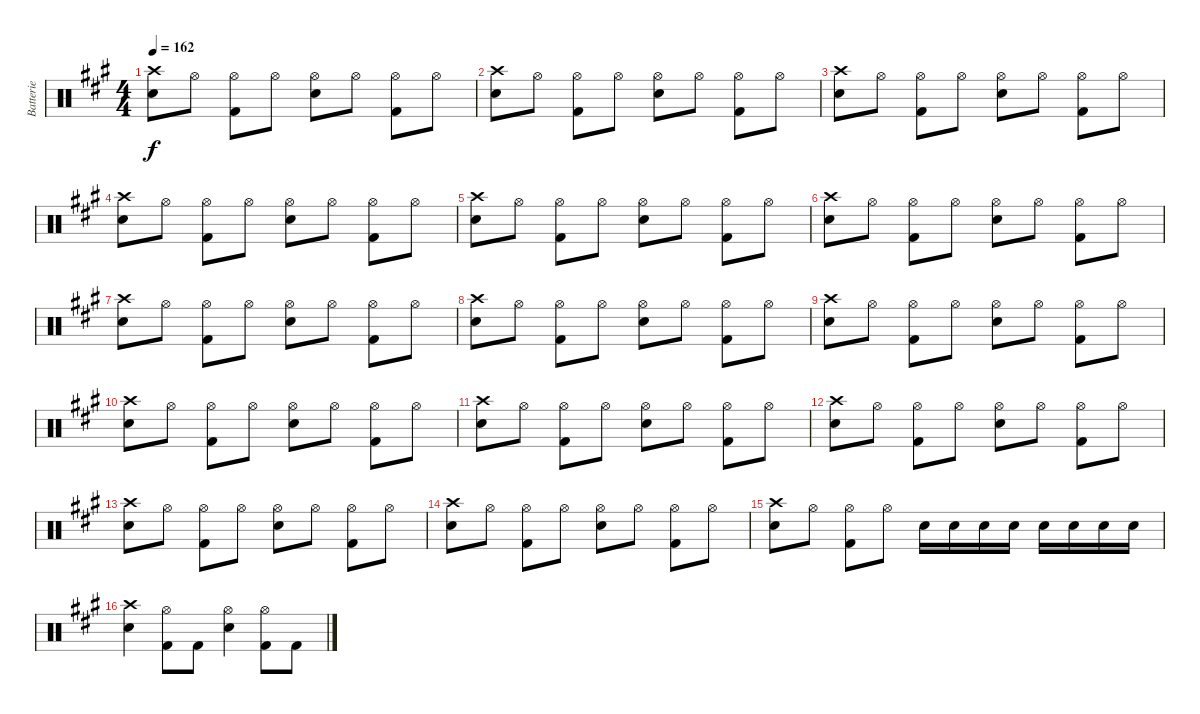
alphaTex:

\track ("Batterie" "Batterie") {instrument percussion}
\staff {score}
\articulation defaults
\ts (4 4)
\tempo 162
\clef neutral
\ks a
("Crash high (hit)" "Snare (hit) 2").8{dy f} "Hi-Hat (open)".8 ("Hi-Hat (open)" "Kick (hit) 2").8 "Hi-Hat (open)".8 ("Hi-Hat (open)" "Snare (hit) 2").8 "Hi-Hat (open)".8 ("Hi-Hat (open)" "Kick (hit) 2").8 "Hi-Hat (open)".8 |
("Crash high (hit)" "Snare (hit) 2").8 "Hi-Hat (open)".8 ("Hi-Hat (open)" "Kick (hit) 2").8 "Hi-Hat (open)".8 ("Hi-Hat (open)" "Snare (hit) 2").8 "Hi-Hat (open)".8 ("Hi-Hat (open)" "Kick (hit) 2").8 "Hi-Hat (open)".8 |
("Crash high (hit)" "Snare (hit) 2").8 "Hi-Hat (open)".8 ("Hi-Hat (open)" "Kick (hit) 2").8 "Hi-Hat (open)".8 ("Hi-Hat (open)" "Snare (hit) 2").8 "Hi-Hat (open)".8 ("Hi-Hat (open)" "Kick (hit) 2").8 "Hi-Hat (open)".8 |
("Crash high (hit)" "Snare (hit) 2").8 "Hi-Hat (open)".8 ("Hi-Hat (open)" "Kick (hit) 2").8 "Hi-Hat (open)".8 ("Hi-Hat (open)" "Snare (hit) 2").8 "Hi-Hat (open)".8 ("Hi-Hat (open)" "Kick (hit) 2").8 "Hi-Hat (open)".8 |
("Crash high (hit)" "Snare (hit) 2").8 "Hi-Hat (open)".8 ("Hi-Hat (open)" "Kick (hit) 2").8 "Hi-Hat (open)".8 ("Hi-Hat (open)" "Snare (hit) 2").8 "Hi-Hat (open)".8 ("Hi-Hat (open)" "Kick (hit) 2").8 "Hi-Hat (open)".8 |
("Crash high (hit)" "Snare (hit) 2").8 "Hi-Hat (open)".8 ("Hi-Hat (open)" "Kick (hit) 2").8 "Hi-Hat (open)".8 ("Hi-Hat (open)" "Snare (hit) 2").8 "Hi-Hat (open)".8 ("Hi-Hat (open)" "Kick (hit) 2").8 "Hi-Hat (open)".8 |
("Crash high (hit)" "Snare (hit) 2").8 "Hi-Hat (open)".8 ("Hi-Hat (open)" "Kick (hit) 2").8 "Hi-Hat (open)".8 ("Hi-Hat (open)" "Snare (hit) 2").8 "Hi-Hat (open)".8 ("Hi-Hat (open)" "Kick (hit) 2").8 "Hi-Hat (open)".8 |
("Crash high (hit)" "Snare (hit) 2").8 "Hi-Hat (open)".8 ("Hi-Hat (open)" "Kick (hit) 2").8 "Hi-Hat (open)".8 ("Hi-Hat (open)" "Snare (hit) 2").8 "Hi-Hat (open)".8 ("Hi-Hat (open)" "Kick (hit) 2").8 "Hi-Hat (open)".8 |
("Crash high (hit)" "Snare (hit) 2").8 "Hi-Hat (open)".8 ("Hi-Hat (open)" "Kick (hit) 2").8 "Hi-Hat (open)".8 ("Hi-Hat (open)" "Snare (hit) 2").8 "Hi-Hat (open)".8 ("Hi-Hat (open)" "Kick (hit) 2").8 "Hi-Hat (open)".8 |
("Crash high (hit)" "Snare (hit) 2").8 "Hi-Hat (open)".8 ("Hi-Hat (open)" "Kick (hit) 2").8 "Hi-Hat (open)".8 ("Hi-Hat (open)" "Snare (hit) 2").8 "Hi-Hat (open)".8 ("Hi-Hat (open)" "Kick (hit) 2").8 "Hi-Hat (open)".8 |
("Crash high (hit)" "Snare (hit) 2").8 "Hi-Hat (open)".8 ("Hi-Hat (open)" "Kick (hit) 2").8 "Hi-Hat (open)".8 ("Hi-Hat (open)" "Snare (hit) 2").8 "Hi-Hat (open)".8 ("Hi-Hat (open)" "Kick (hit) 2").8 "Hi-Hat (open)".8 |
("Crash high (hit)" "Snare (hit) 2").8 "Hi-Hat (open)".8 ("Hi-Hat (open)" "Kick (hit) 2").8 "Hi-Hat (open)".8 ("Hi-Hat (open)" "Snare (hit) 2").8 "Hi-Hat (open)".8 ("Hi-Hat (open)" "Kick (hit) 2").8 "Hi-Hat (open)".8 |
("Crash high (hit)" "Snare (hit) 2").8 "Hi-Hat (open)".8 ("Hi-Hat (open)" "Kick (hit) 2").8 "Hi-Hat (open)".8 ("Hi-Hat (open)" "Snare (hit) 2").8 "Hi-Hat (open)".8 ("Hi-Hat (open)" "Kick (hit) 2").8 "Hi-Hat (open)".8 |
("Crash high (hit)" "Snare (hit) 2").8 "Hi-Hat (open)".8 ("Hi-Hat (open)" "Kick (hit) 2").8 "Hi-Hat (open)".8 ("Hi-Hat (open)" "Snare (hit) 2").8 "Hi-Hat (open)".8 ("Hi-Hat (open)" "Kick (hit) 2").8 "Hi-Hat (open)".8 |
("Crash high (hit)" "Snare (hit) 2").8 "Hi-Hat (open)".8 ("Hi-Hat (open)" "Kick (hit) 2").8 "Hi-Hat (open)".8 "Snare (hit) 2".16 "Snare (hit) 2".16 "Snare (hit) 2".16 "Snare (hit) 2".16 "Snare (hit) 2".16 "Snare (hit) 2".16 "Snare (hit) 2".16 "Snare (hit) 2".16 |
("Crash high (hit)" "Snare (hit) 2").4 ("Hi-Hat (open)" "Kick (hit) 2").8 "Kick (hit) 2".8 ("Hi-Hat (open)" "Snare (hit) 2").4 ("Hi-Hat (open)" "Kick (hit) 2").8 "Kick (hit) 2".8
